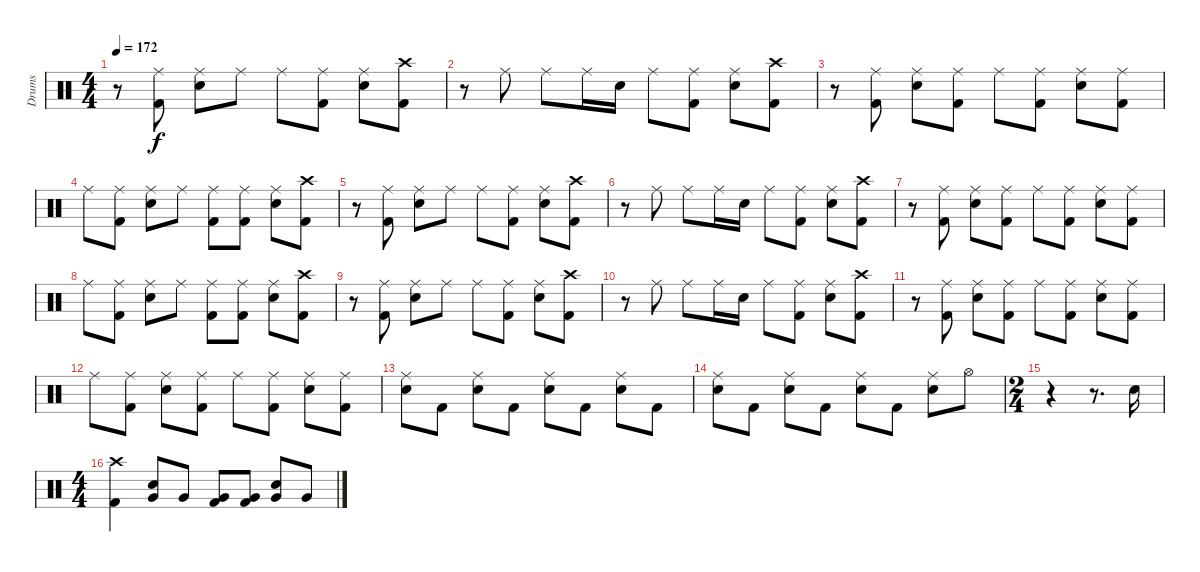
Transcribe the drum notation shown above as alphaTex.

\track ("Drums" "Drums") {instrument percussion}
\staff {score}
\articulation defaults
\ts (4 4)
\tempo 172
\clef neutral
\ks c
r.8{dy f} ("Ride (middle)" "Kick (hit) 2").8 ("Ride (middle)" "Electric Snare (hit)").8 "Ride (middle)".8 "Ride (middle)".8 ("Ride (middle)" "Kick (hit) 2").8 ("Ride (middle)" "Electric Snare (hit)").8 ("Crash high (hit)" "Kick (hit) 2").8 |
r.8 "Ride (middle)".8 "Ride (middle)".8 "Ride (middle)".16 "Electric Snare (hit)".16 "Ride (middle)".8 ("Ride (middle)" "Kick (hit) 2").8 ("Ride (middle)" "Electric Snare (hit)").8 ("Crash high (hit)" "Kick (hit) 2").8 |
r.8 ("Ride (middle)" "Kick (hit) 2").8 ("Ride (middle)" "Electric Snare (hit)").8 ("Ride (middle)" "Kick (hit) 2").8 "Ride (middle)".8 ("Ride (middle)" "Kick (hit) 2").8 ("Ride (middle)" "Electric Snare (hit)").8 ("Ride (middle)" "Kick (hit) 2").8 |
"Ride (middle)".8 ("Ride (middle)" "Kick (hit) 2").8 ("Ride (middle)" "Electric Snare (hit)").8 "Ride (middle)".8 ("Ride (middle)" "Kick (hit) 2").8 ("Ride (middle)" "Kick (hit) 2").8 ("Ride (middle)" "Electric Snare (hit)").8 ("Crash high (hit)" "Kick (hit) 2").8 |
r.8 ("Ride (middle)" "Kick (hit) 2").8 ("Ride (middle)" "Electric Snare (hit)").8 "Ride (middle)".8 "Ride (middle)".8 ("Ride (middle)" "Kick (hit) 2").8 ("Ride (middle)" "Electric Snare (hit)").8 ("Crash high (hit)" "Kick (hit) 2").8 |
r.8 "Ride (middle)".8 "Ride (middle)".8 "Ride (middle)".16 "Electric Snare (hit)".16 "Ride (middle)".8 ("Ride (middle)" "Kick (hit) 2").8 ("Ride (middle)" "Electric Snare (hit)").8 ("Crash high (hit)" "Kick (hit) 2").8 |
r.8 ("Ride (middle)" "Kick (hit) 2").8 ("Ride (middle)" "Electric Snare (hit)").8 ("Ride (middle)" "Kick (hit) 2").8 "Ride (middle)".8 ("Ride (middle)" "Kick (hit) 2").8 ("Ride (middle)" "Electric Snare (hit)").8 ("Ride (middle)" "Kick (hit) 2").8 |
"Ride (middle)".8 ("Ride (middle)" "Kick (hit) 2").8 ("Ride (middle)" "Electric Snare (hit)").8 "Ride (middle)".8 ("Ride (middle)" "Kick (hit) 2").8 ("Ride (middle)" "Kick (hit) 2").8 ("Ride (middle)" "Electric Snare (hit)").8 ("Crash high (hit)" "Kick (hit) 2").8 |
r.8 ("Ride (middle)" "Kick (hit) 2").8 ("Ride (middle)" "Electric Snare (hit)").8 "Ride (middle)".8 "Ride (middle)".8 ("Ride (middle)" "Kick (hit) 2").8 ("Ride (middle)" "Electric Snare (hit)").8 ("Crash high (hit)" "Kick (hit) 2").8 |
r.8 "Ride (middle)".8 "Ride (middle)".8 "Ride (middle)".16 "Electric Snare (hit)".16 "Ride (middle)".8 ("Ride (middle)" "Kick (hit) 2").8 ("Ride (middle)" "Electric Snare (hit)").8 ("Crash high (hit)" "Kick (hit) 2").8 |
r.8 ("Ride (middle)" "Kick (hit) 2").8 ("Ride (middle)" "Electric Snare (hit)").8 ("Ride (middle)" "Kick (hit) 2").8 "Ride (middle)".8 ("Ride (middle)" "Kick (hit) 2").8 ("Ride (middle)" "Electric Snare (hit)").8 ("Ride (middle)" "Kick (hit) 2").8 |
"Ride (middle)".8 ("Ride (middle)" "Kick (hit) 2").8 ("Ride (middle)" "Electric Snare (hit)").8 ("Ride (middle)" "Kick (hit) 2").8 "Ride (middle)".8 ("Ride (middle)" "Kick (hit) 2").8 ("Ride (middle)" "Electric Snare (hit)").8 ("Ride (middle)" "Kick (hit) 2").8 |
("Ride (middle)" "Electric Snare (hit)").8 "Kick (hit) 2".8 ("Ride (middle)" "Electric Snare (hit)").8 "Kick (hit) 2".8 ("Ride (middle)" "Electric Snare (hit)").8 "Kick (hit) 2".8 ("Ride (middle)" "Electric Snare (hit)").8 "Kick (hit) 2".8 |
("Ride (middle)" "Electric Snare (hit)").8 "Kick (hit) 2".8 ("Ride (middle)" "Electric Snare (hit)").8 "Kick (hit) 2".8 ("Ride (middle)" "Electric Snare (hit)").8 "Kick (hit) 2".8 ("Ride (middle)" "Electric Snare (hit)").8 "Hi-Hat (open)".8 |
\ts (2 4)
r.4 r.8{d} "Electric Snare (hit)".16 |
\ts (4 4)
("Crash high (hit)" "Kick (hit) 2").4 ("Very Low Tom (hit)" "Electric Snare (hit)").8 "Very Low Tom (hit)".8 ("Very Low Tom (hit)" "Kick (hit) 2").8 ("Very Low Tom (hit)" "Kick (hit) 2").8 ("Very Low Tom (hit)" "Electric Snare (hit)").8 "Very Low Tom (hit)".8
